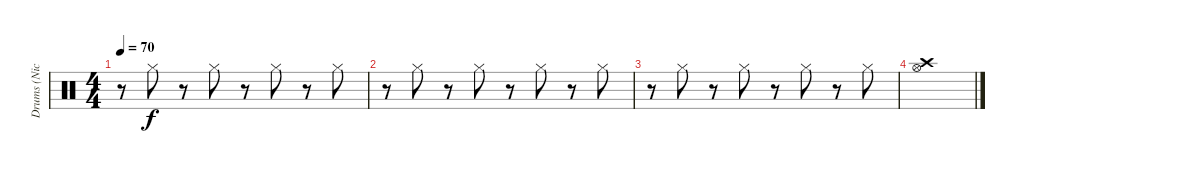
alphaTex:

\track ("Drums (Nick Mason)" "Drums (Nic") {instrument percussion}
\staff {score}
\articulation defaults
\ts (4 4)
\tempo 70
\clef neutral
\ks c
r.8{dy f} "Hi-Hat (closed)".8 r.8 "Hi-Hat (closed)".8 r.8 "Hi-Hat (closed)".8 r.8 "Hi-Hat (closed)".8 |
r.8 "Hi-Hat (closed)".8 r.8 "Hi-Hat (closed)".8 r.8 "Hi-Hat (closed)".8 r.8 "Hi-Hat (closed)".8 |
r.8 "Hi-Hat (closed)".8 r.8 "Hi-Hat (closed)".8 r.8 "Hi-Hat (closed)".8 r.8 "Hi-Hat (closed)".8 |
("Crash high (hit)" "Hi-Hat (open)").1
